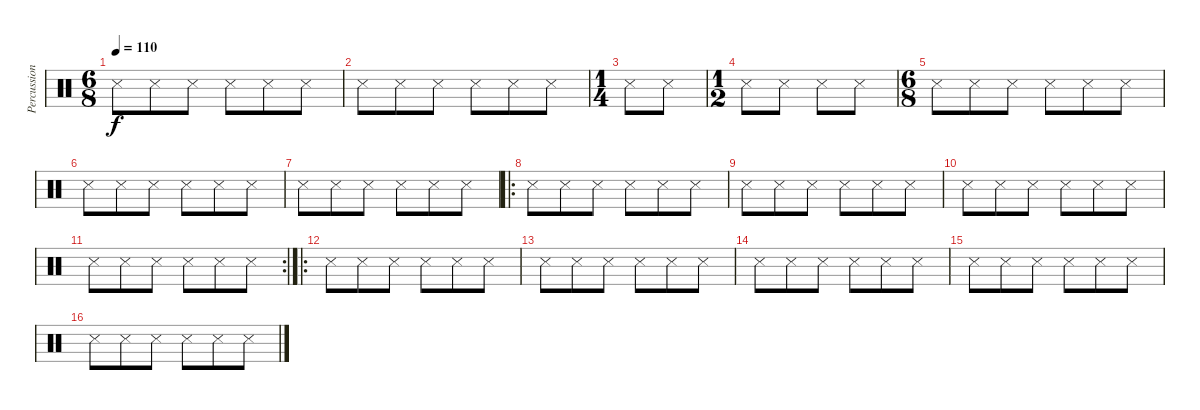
\track ("Percussion" "Percussion") {instrument percussion}
\staff {score}
\articulation defaults
\ts (6 8)
\tempo 110
\clef neutral
\ks c "Snare (side stick) 3".8{dy f} "Snare (side stick) 3".8 "Snare (side stick) 3".8 "Snare (side stick) 3".8 "Snare (side stick) 3".8 "Snare (side stick) 3".8
|
"Snare (side stick) 3".8 "Snare (side stick) 3".8 "Snare (side stick) 3".8 "Snare (side stick) 3".8 "Snare (side stick) 3".8 "Snare (side stick) 3".8 |
\ts (1 4)
"Snare (side stick) 3".8 "Snare (side stick) 3".8 |
\ts (1 2)
"Snare (side stick) 3".8 "Snare (side stick) 3".8 "Snare (side stick) 3".8 "Snare (side stick) 3".8 |
\ts (6 8)
"Snare (side stick) 3".8 "Snare (side stick) 3".8 "Snare (side stick) 3".8 "Snare (side stick) 3".8 "Snare (side stick) 3".8 "Snare (side stick) 3".8 |
"Snare (side stick) 3".8 "Snare (side stick) 3".8 "Snare (side stick) 3".8 "Snare (side stick) 3".8 "Snare (side stick) 3".8 "Snare (side stick) 3".8 |
"Snare (side stick) 3".8 "Snare (side stick) 3".8 "Snare (side stick) 3".8 "Snare (side stick) 3".8 "Snare (side stick) 3".8 "Snare (side stick) 3".8 |
\ro "Snare (side stick) 3".8 "Snare (side stick) 3".8 "Snare (side stick) 3".8 "Snare (side stick) 3".8 "Snare (side stick) 3".8 "Snare (side stick) 3".8
|
"Snare (side stick) 3".8 "Snare (side stick) 3".8 "Snare (side stick) 3".8 "Snare (side stick) 3".8 "Snare (side stick) 3".8 "Snare (side stick) 3".8 |
"Snare (side stick) 3".8 "Snare (side stick) 3".8 "Snare (side stick) 3".8 "Snare (side stick) 3".8 "Snare (side stick) 3".8 "Snare (side stick) 3".8 |
\rc 2 "Snare (side stick) 3".8 "Snare (side stick) 3".8 "Snare (side stick) 3".8 "Snare (side stick) 3".8 "Snare (side stick) 3".8 "Snare (side stick) 3".8
|
\ro "Snare (side stick) 3".8 "Snare (side stick) 3".8 "Snare (side stick) 3".8 "Snare (side stick) 3".8 "Snare (side stick) 3".8 "Snare (side stick) 3".8
|
"Snare (side stick) 3".8 "Snare (side stick) 3".8 "Snare (side stick) 3".8 "Snare (side stick) 3".8 "Snare (side stick) 3".8 "Snare (side stick) 3".8 |
"Snare (side stick) 3".8 "Snare (side stick) 3".8 "Snare (side stick) 3".8 "Snare (side stick) 3".8 "Snare (side stick) 3".8 "Snare (side stick) 3".8 |
"Snare (side stick) 3".8 "Snare (side stick) 3".8 "Snare (side stick) 3".8 "Snare (side stick) 3".8 "Snare (side stick) 3".8 "Snare (side stick) 3".8 |
"Snare (side stick) 3".8 "Snare (side stick) 3".8 "Snare (side stick) 3".8 "Snare (side stick) 3".8 "Snare (side stick) 3".8 "Snare (side stick) 3".8
